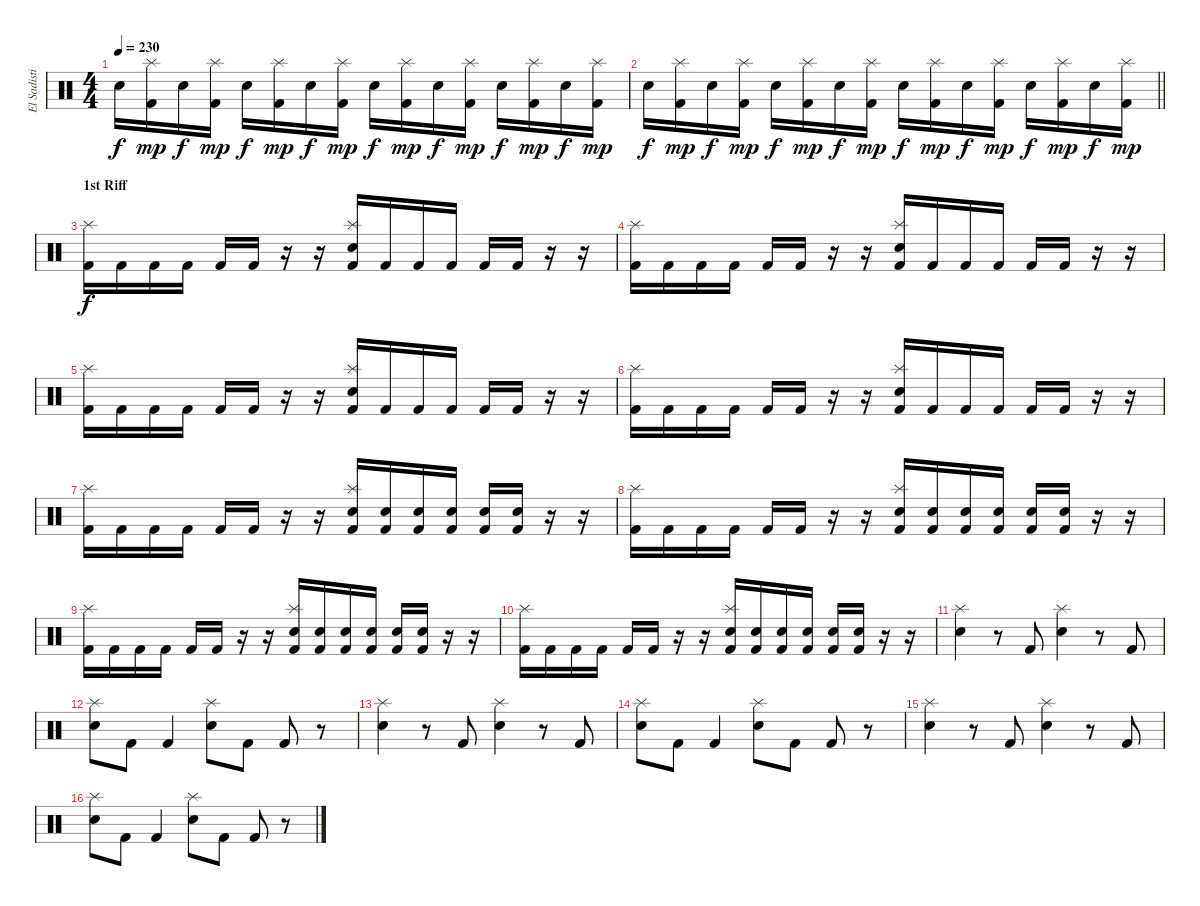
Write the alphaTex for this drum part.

\track ("El Sadistico" "El Sadisti") {instrument percussion}
\staff {score}
\articulation defaults
\ts (4 4)
\tempo 230
\clef neutral
\ks c "Electric Snare (hit)".16{dy f}
("Splash (hit)" "Kick (hit) 2").16{dy mp} "Electric Snare (hit)".16{dy f} ("Splash (hit)" "Kick (hit) 2").16{dy mp} "Electric Snare (hit)".16{dy f} ("Splash (hit)" "Kick (hit) 2").16{dy mp} "Electric Snare (hit)".16{dy f} ("Splash (hit)" "Kick (hit) 2").16{dy mp} "Electric Snare (hit)".16{dy f} ("Splash (hit)" "Kick (hit) 2").16{dy mp} "Electric Snare (hit)".16{dy f} ("Splash (hit)" "Kick (hit) 2").16{dy mp} "Electric Snare (hit)".16{dy f} ("Splash (hit)" "Kick (hit) 2").16{dy mp} "Electric Snare (hit)".16{dy f} ("Splash (hit)" "Kick (hit) 2").16{dy mp} |
\barLineRight lightlight "Electric Snare (hit)".16{dy f}
("Splash (hit)" "Kick (hit) 2").16{dy mp} "Electric Snare (hit)".16{dy f} ("Splash (hit)" "Kick (hit) 2").16{dy mp} "Electric Snare (hit)".16{dy f} ("Splash (hit)" "Kick (hit) 2").16{dy mp} "Electric Snare (hit)".16{dy f} ("Splash (hit)" "Kick (hit) 2").16{dy mp} "Electric Snare (hit)".16{dy f} ("Splash (hit)" "Kick (hit) 2").16{dy mp} "Electric Snare (hit)".16{dy f} ("Splash (hit)" "Kick (hit) 2").16{dy mp} "Electric Snare (hit)".16{dy f} ("Splash (hit)" "Kick (hit) 2").16{dy mp} "Electric Snare (hit)".16{dy f} ("Splash (hit)" "Kick (hit) 2").16{dy mp} |
\section ("" "1st Riff")
("Splash (hit)" "Kick (hit) 2").16{dy f} "Kick (hit) 2".16 "Kick (hit) 2".16 "Kick (hit) 2".16 "Kick (hit) 2".16 "Kick (hit) 2".16 r.16 r.16 ("Splash (hit)" "Electric Snare (hit)" "Kick (hit) 2").16 "Kick (hit) 2".16 "Kick (hit) 2".16 "Kick (hit) 2".16 "Kick (hit) 2".16 "Kick (hit) 2".16 r.16 r.16 |
("Splash (hit)" "Kick (hit) 2").16 "Kick (hit) 2".16 "Kick (hit) 2".16 "Kick (hit) 2".16 "Kick (hit) 2".16 "Kick (hit) 2".16 r.16 r.16 ("Splash (hit)" "Electric Snare (hit)" "Kick (hit) 2").16 "Kick (hit) 2".16 "Kick (hit) 2".16 "Kick (hit) 2".16 "Kick (hit) 2".16 "Kick (hit) 2".16 r.16 r.16 |
("Splash (hit)" "Kick (hit) 2").16 "Kick (hit) 2".16 "Kick (hit) 2".16 "Kick (hit) 2".16 "Kick (hit) 2".16 "Kick (hit) 2".16 r.16 r.16 ("Splash (hit)" "Electric Snare (hit)" "Kick (hit) 2").16 "Kick (hit) 2".16 "Kick (hit) 2".16 "Kick (hit) 2".16 "Kick (hit) 2".16 "Kick (hit) 2".16 r.16 r.16 |
("Splash (hit)" "Kick (hit) 2").16 "Kick (hit) 2".16 "Kick (hit) 2".16 "Kick (hit) 2".16 "Kick (hit) 2".16 "Kick (hit) 2".16 r.16 r.16 ("Splash (hit)" "Electric Snare (hit)" "Kick (hit) 2").16 "Kick (hit) 2".16 "Kick (hit) 2".16 "Kick (hit) 2".16 "Kick (hit) 2".16 "Kick (hit) 2".16 r.16 r.16 |
("Splash (hit)" "Kick (hit) 2").16 "Kick (hit) 2".16 "Kick (hit) 2".16 "Kick (hit) 2".16 "Kick (hit) 2".16 "Kick (hit) 2".16 r.16 r.16 ("Splash (hit)" "Electric Snare (hit)" "Kick (hit) 2").16 ("Electric Snare (hit)" "Kick (hit) 2").16 ("Electric Snare (hit)" "Kick (hit) 2").16 ("Electric Snare (hit)" "Kick (hit) 2").16 ("Electric Snare (hit)" "Kick (hit) 2").16 ("Electric Snare (hit)" "Kick (hit) 2").16 r.16 r.16 |
("Splash (hit)" "Kick (hit) 2").16 "Kick (hit) 2".16 "Kick (hit) 2".16 "Kick (hit) 2".16 "Kick (hit) 2".16 "Kick (hit) 2".16 r.16 r.16 ("Splash (hit)" "Electric Snare (hit)" "Kick (hit) 2").16 ("Electric Snare (hit)" "Kick (hit) 2").16 ("Electric Snare (hit)" "Kick (hit) 2").16 ("Electric Snare (hit)" "Kick (hit) 2").16 ("Electric Snare (hit)" "Kick (hit) 2").16 ("Electric Snare (hit)" "Kick (hit) 2").16 r.16 r.16 |
("Splash (hit)" "Kick (hit) 2").16 "Kick (hit) 2".16 "Kick (hit) 2".16 "Kick (hit) 2".16 "Kick (hit) 2".16 "Kick (hit) 2".16 r.16 r.16 ("Splash (hit)" "Electric Snare (hit)" "Kick (hit) 2").16 ("Electric Snare (hit)" "Kick (hit) 2").16 ("Electric Snare (hit)" "Kick (hit) 2").16 ("Electric Snare (hit)" "Kick (hit) 2").16 ("Electric Snare (hit)" "Kick (hit) 2").16 ("Electric Snare (hit)" "Kick (hit) 2").16 r.16 r.16 |
("Splash (hit)" "Kick (hit) 2").16 "Kick (hit) 2".16 "Kick (hit) 2".16 "Kick (hit) 2".16 "Kick (hit) 2".16 "Kick (hit) 2".16 r.16 r.16 ("Splash (hit)" "Electric Snare (hit)" "Kick (hit) 2").16 ("Electric Snare (hit)" "Kick (hit) 2").16 ("Electric Snare (hit)" "Kick (hit) 2").16 ("Electric Snare (hit)" "Kick (hit) 2").16 ("Electric Snare (hit)" "Kick (hit) 2").16 ("Electric Snare (hit)" "Kick (hit) 2").16 r.16 r.16 |
("Splash (hit)" "Electric Snare (hit)").4 r.8 "Kick (hit) 2".8 ("Splash (hit)" "Electric Snare (hit)").4 r.8 "Kick (hit) 2".8 |
("Splash (hit)" "Electric Snare (hit)").8 "Kick (hit) 2".8 "Kick (hit) 2".4 ("Splash (hit)" "Electric Snare (hit)").8 "Kick (hit) 2".8 "Kick (hit) 2".8 r.8 |
("Splash (hit)" "Electric Snare (hit)").4 r.8 "Kick (hit) 2".8 ("Splash (hit)" "Electric Snare (hit)").4 r.8 "Kick (hit) 2".8 |
("Splash (hit)" "Electric Snare (hit)").8 "Kick (hit) 2".8 "Kick (hit) 2".4 ("Splash (hit)" "Electric Snare (hit)").8 "Kick (hit) 2".8 "Kick (hit) 2".8 r.8 |
("Splash (hit)" "Electric Snare (hit)").4 r.8 "Kick (hit) 2".8 ("Splash (hit)" "Electric Snare (hit)").4 r.8 "Kick (hit) 2".8 |
("Splash (hit)" "Electric Snare (hit)").8 "Kick (hit) 2".8 "Kick (hit) 2".4 ("Splash (hit)" "Electric Snare (hit)").8 "Kick (hit) 2".8 "Kick (hit) 2".8 r.8
